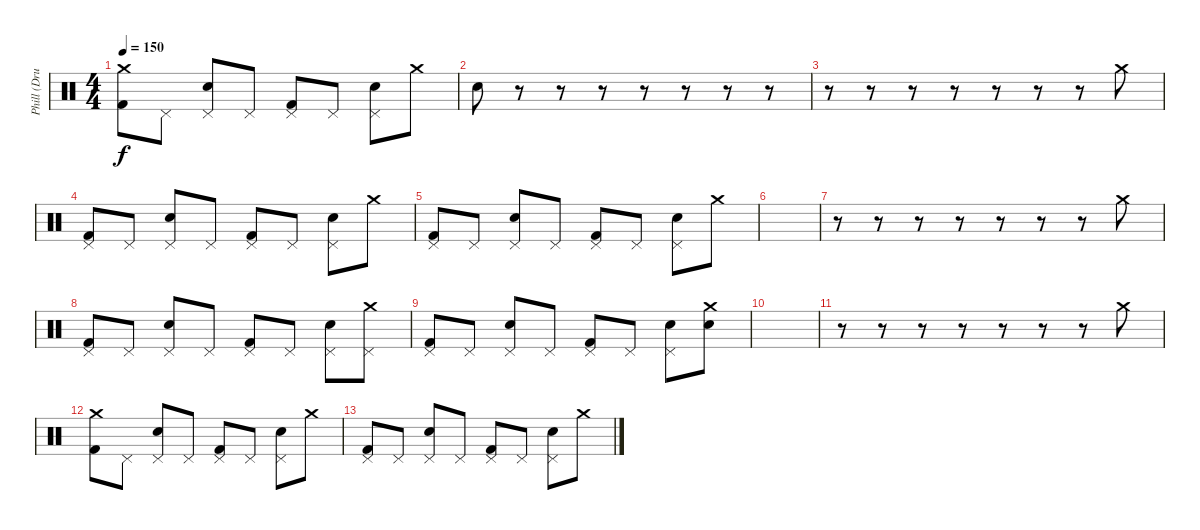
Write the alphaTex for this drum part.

\track ("Phill (Drums)" "Phill (Dru") {instrument percussion}
\staff {score}
\articulation defaults
\ts (4 4)
\tempo 150
\clef neutral
\ks c
("Kick (hit) 2" "Crash medium (hit)").8{dy f} "Pedal Hi-Hat (hit)".8 ("Snare (hit) 2" "Pedal Hi-Hat (hit)").8 "Pedal Hi-Hat (hit)".8 ("Kick (hit) 2" "Pedal Hi-Hat (hit)").8 "Pedal Hi-Hat (hit)".8 ("Snare (hit) 2" "Pedal Hi-Hat (hit)").8 "Crash medium (hit)".8 |
"Snare (hit) 2".8 r.8 r.8 r.8 r.8 r.8 r.8 r.8 |
r.8 r.8 r.8 r.8 r.8 r.8 r.8 "Crash medium (hit)".8 |
("Kick (hit) 2" "Pedal Hi-Hat (hit)").8 "Pedal Hi-Hat (hit)".8 ("Snare (hit) 2" "Pedal Hi-Hat (hit)").8 "Pedal Hi-Hat (hit)".8 ("Kick (hit) 2" "Pedal Hi-Hat (hit)").8 "Pedal Hi-Hat (hit)".8 ("Snare (hit) 2" "Pedal Hi-Hat (hit)").8 "Crash medium (hit)".8 |
("Kick (hit) 2" "Pedal Hi-Hat (hit)").8 "Pedal Hi-Hat (hit)".8 ("Snare (hit) 2" "Pedal Hi-Hat (hit)").8 "Pedal Hi-Hat (hit)".8 ("Kick (hit) 2" "Pedal Hi-Hat (hit)").8 "Pedal Hi-Hat (hit)".8 ("Snare (hit) 2" "Pedal Hi-Hat (hit)").8 "Crash medium (hit)".8 |
|
r.8 r.8 r.8 r.8 r.8 r.8 r.8 "Crash medium (hit)".8 |
("Kick (hit) 2" "Pedal Hi-Hat (hit)").8 "Pedal Hi-Hat (hit)".8 ("Snare (hit) 2" "Pedal Hi-Hat (hit)").8 "Pedal Hi-Hat (hit)".8 ("Kick (hit) 2" "Pedal Hi-Hat (hit)").8 "Pedal Hi-Hat (hit)".8 ("Snare (hit) 2" "Pedal Hi-Hat (hit)").8 ("Pedal Hi-Hat (hit)" "Crash medium (hit)").8 |
("Kick (hit) 2" "Pedal Hi-Hat (hit)").8 "Pedal Hi-Hat (hit)".8 ("Snare (hit) 2" "Pedal Hi-Hat (hit)").8 "Pedal Hi-Hat (hit)".8 ("Kick (hit) 2" "Pedal Hi-Hat (hit)").8 "Pedal Hi-Hat (hit)".8 ("Snare (hit) 2" "Pedal Hi-Hat (hit)").8 ("Snare (hit) 2" "Crash medium (hit)").8 |
|
r.8 r.8 r.8 r.8 r.8 r.8 r.8 "Crash medium (hit)".8 |
("Kick (hit) 2" "Crash medium (hit)").8 "Pedal Hi-Hat (hit)".8 ("Snare (hit) 2" "Pedal Hi-Hat (hit)").8 "Pedal Hi-Hat (hit)".8 ("Kick (hit) 2" "Pedal Hi-Hat (hit)").8 "Pedal Hi-Hat (hit)".8 ("Snare (hit) 2" "Pedal Hi-Hat (hit)").8 "Crash medium (hit)".8 |
("Kick (hit) 2" "Pedal Hi-Hat (hit)").8 "Pedal Hi-Hat (hit)".8 ("Snare (hit) 2" "Pedal Hi-Hat (hit)").8 "Pedal Hi-Hat (hit)".8 ("Kick (hit) 2" "Pedal Hi-Hat (hit)").8 "Pedal Hi-Hat (hit)".8 ("Snare (hit) 2" "Pedal Hi-Hat (hit)").8 "Crash medium (hit)".8
